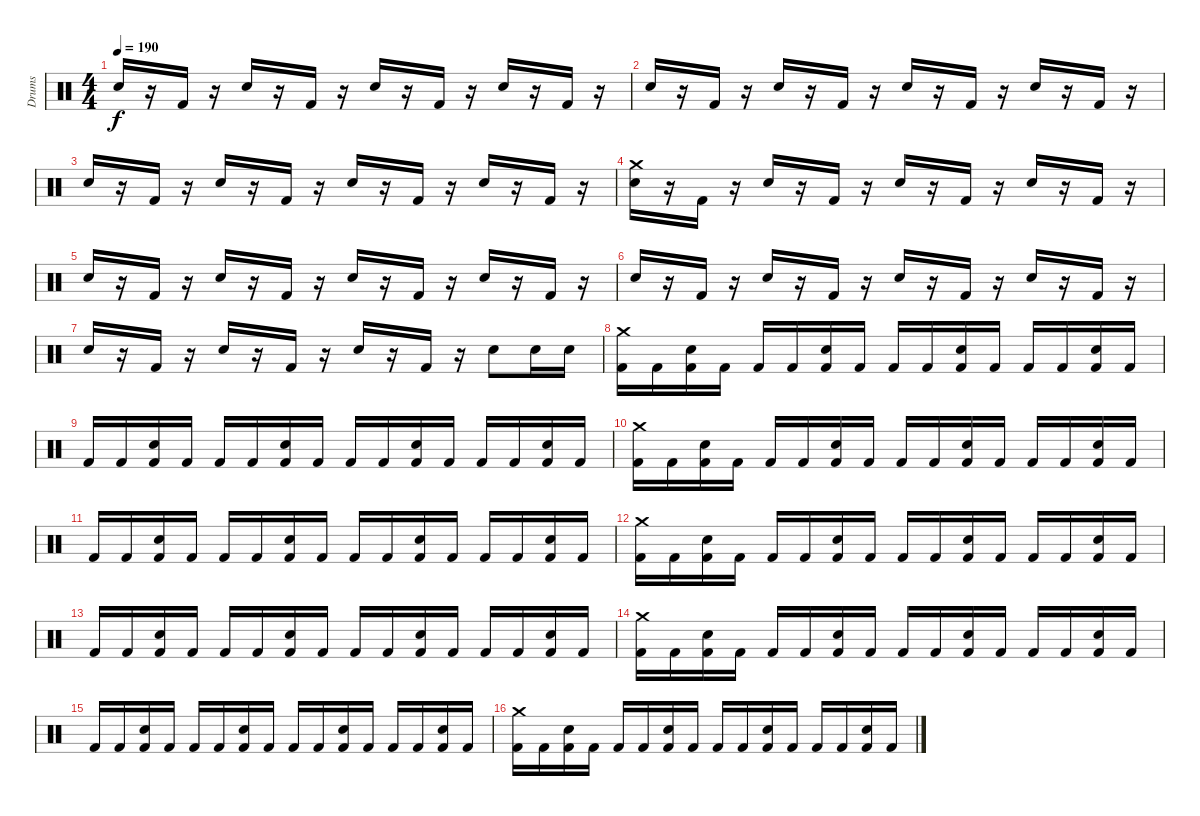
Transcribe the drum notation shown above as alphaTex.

\track ("Drums" "Drums") {instrument percussion}
\staff {score}
\articulation defaults
\ts (4 4)
\tempo 190
\clef neutral
\ks c "Electric Snare (hit)".16{dy f}
r.16 "Kick (hit) 2".16 r.16 "Electric Snare (hit)".16 r.16 "Kick (hit) 2".16 r.16 "Electric Snare (hit)".16 r.16 "Kick (hit) 2".16 r.16 "Electric Snare (hit)".16 r.16 "Kick (hit) 2".16 r.16 |
"Electric Snare (hit)".16 r.16 "Kick (hit) 2".16 r.16 "Electric Snare (hit)".16 r.16 "Kick (hit) 2".16 r.16 "Electric Snare (hit)".16 r.16 "Kick (hit) 2".16 r.16 "Electric Snare (hit)".16 r.16 "Kick (hit) 2".16 r.16 |
"Electric Snare (hit)".16 r.16 "Kick (hit) 2".16 r.16 "Electric Snare (hit)".16 r.16 "Kick (hit) 2".16 r.16 "Electric Snare (hit)".16 r.16 "Kick (hit) 2".16 r.16 "Electric Snare (hit)".16 r.16 "Kick (hit) 2".16 r.16 |
("Crash medium (hit)" "Electric Snare (hit)").16 r.16 "Kick (hit) 2".16 r.16 "Electric Snare (hit)".16 r.16 "Kick (hit) 2".16 r.16 "Electric Snare (hit)".16 r.16 "Kick (hit) 2".16 r.16 "Electric Snare (hit)".16 r.16 "Kick (hit) 2".16 r.16 |
"Electric Snare (hit)".16 r.16 "Kick (hit) 2".16 r.16 "Electric Snare (hit)".16 r.16 "Kick (hit) 2".16 r.16 "Electric Snare (hit)".16 r.16 "Kick (hit) 2".16 r.16 "Electric Snare (hit)".16 r.16 "Kick (hit) 2".16 r.16 |
"Electric Snare (hit)".16 r.16 "Kick (hit) 2".16 r.16 "Electric Snare (hit)".16 r.16 "Kick (hit) 2".16 r.16 "Electric Snare (hit)".16 r.16 "Kick (hit) 2".16 r.16 "Electric Snare (hit)".16 r.16 "Kick (hit) 2".16 r.16 |
"Electric Snare (hit)".16 r.16 "Kick (hit) 2".16 r.16 "Electric Snare (hit)".16 r.16 "Kick (hit) 2".16 r.16 "Electric Snare (hit)".16 r.16 "Kick (hit) 2".16 r.16 "Electric Snare (hit)".8 "Electric Snare (hit)".16 "Electric Snare (hit)".16 |
("Crash medium (hit)" "Kick (hit) 2").16 "Kick (hit) 2".16 ("Electric Snare (hit)" "Kick (hit) 2").16 "Kick (hit) 2".16 "Kick (hit) 2".16 "Kick (hit) 2".16 ("Electric Snare (hit)" "Kick (hit) 2").16 "Kick (hit) 2".16 "Kick (hit) 2".16 "Kick (hit) 2".16 ("Electric Snare (hit)" "Kick (hit) 2").16 "Kick (hit) 2".16 "Kick (hit) 2".16 "Kick (hit) 2".16 ("Electric Snare (hit)" "Kick (hit) 2").16 "Kick (hit) 2".16 |
"Kick (hit) 2".16 "Kick (hit) 2".16 ("Electric Snare (hit)" "Kick (hit) 2").16 "Kick (hit) 2".16 "Kick (hit) 2".16 "Kick (hit) 2".16 ("Electric Snare (hit)" "Kick (hit) 2").16 "Kick (hit) 2".16 "Kick (hit) 2".16 "Kick (hit) 2".16 ("Electric Snare (hit)" "Kick (hit) 2").16 "Kick (hit) 2".16 "Kick (hit) 2".16 "Kick (hit) 2".16 ("Electric Snare (hit)" "Kick (hit) 2").16 "Kick (hit) 2".16 |
("Crash medium (hit)" "Kick (hit) 2").16 "Kick (hit) 2".16 ("Electric Snare (hit)" "Kick (hit) 2").16 "Kick (hit) 2".16 "Kick (hit) 2".16 "Kick (hit) 2".16 ("Electric Snare (hit)" "Kick (hit) 2").16 "Kick (hit) 2".16 "Kick (hit) 2".16 "Kick (hit) 2".16 ("Electric Snare (hit)" "Kick (hit) 2").16 "Kick (hit) 2".16 "Kick (hit) 2".16 "Kick (hit) 2".16 ("Electric Snare (hit)" "Kick (hit) 2").16 "Kick (hit) 2".16 |
"Kick (hit) 2".16 "Kick (hit) 2".16 ("Electric Snare (hit)" "Kick (hit) 2").16 "Kick (hit) 2".16 "Kick (hit) 2".16 "Kick (hit) 2".16 ("Electric Snare (hit)" "Kick (hit) 2").16 "Kick (hit) 2".16 "Kick (hit) 2".16 "Kick (hit) 2".16 ("Electric Snare (hit)" "Kick (hit) 2").16 "Kick (hit) 2".16 "Kick (hit) 2".16 "Kick (hit) 2".16 ("Electric Snare (hit)" "Kick (hit) 2").16 "Kick (hit) 2".16 |
("Crash medium (hit)" "Kick (hit) 2").16 "Kick (hit) 2".16 ("Electric Snare (hit)" "Kick (hit) 2").16 "Kick (hit) 2".16 "Kick (hit) 2".16 "Kick (hit) 2".16 ("Electric Snare (hit)" "Kick (hit) 2").16 "Kick (hit) 2".16 "Kick (hit) 2".16 "Kick (hit) 2".16 ("Electric Snare (hit)" "Kick (hit) 2").16 "Kick (hit) 2".16 "Kick (hit) 2".16 "Kick (hit) 2".16 ("Electric Snare (hit)" "Kick (hit) 2").16 "Kick (hit) 2".16 |
"Kick (hit) 2".16 "Kick (hit) 2".16 ("Electric Snare (hit)" "Kick (hit) 2").16 "Kick (hit) 2".16 "Kick (hit) 2".16 "Kick (hit) 2".16 ("Electric Snare (hit)" "Kick (hit) 2").16 "Kick (hit) 2".16 "Kick (hit) 2".16 "Kick (hit) 2".16 ("Electric Snare (hit)" "Kick (hit) 2").16 "Kick (hit) 2".16 "Kick (hit) 2".16 "Kick (hit) 2".16 ("Electric Snare (hit)" "Kick (hit) 2").16 "Kick (hit) 2".16 |
("Crash medium (hit)" "Kick (hit) 2").16 "Kick (hit) 2".16 ("Electric Snare (hit)" "Kick (hit) 2").16 "Kick (hit) 2".16 "Kick (hit) 2".16 "Kick (hit) 2".16 ("Electric Snare (hit)" "Kick (hit) 2").16 "Kick (hit) 2".16 "Kick (hit) 2".16 "Kick (hit) 2".16 ("Electric Snare (hit)" "Kick (hit) 2").16 "Kick (hit) 2".16 "Kick (hit) 2".16 "Kick (hit) 2".16 ("Electric Snare (hit)" "Kick (hit) 2").16 "Kick (hit) 2".16 |
"Kick (hit) 2".16 "Kick (hit) 2".16 ("Electric Snare (hit)" "Kick (hit) 2").16 "Kick (hit) 2".16 "Kick (hit) 2".16 "Kick (hit) 2".16 ("Electric Snare (hit)" "Kick (hit) 2").16 "Kick (hit) 2".16 "Kick (hit) 2".16 "Kick (hit) 2".16 ("Electric Snare (hit)" "Kick (hit) 2").16 "Kick (hit) 2".16 "Kick (hit) 2".16 "Kick (hit) 2".16 ("Electric Snare (hit)" "Kick (hit) 2").16 "Kick (hit) 2".16 |
("Crash medium (hit)" "Kick (hit) 2").16 "Kick (hit) 2".16 ("Electric Snare (hit)" "Kick (hit) 2").16 "Kick (hit) 2".16 "Kick (hit) 2".16 "Kick (hit) 2".16 ("Electric Snare (hit)" "Kick (hit) 2").16 "Kick (hit) 2".16 "Kick (hit) 2".16 "Kick (hit) 2".16 ("Electric Snare (hit)" "Kick (hit) 2").16 "Kick (hit) 2".16 "Kick (hit) 2".16 "Kick (hit) 2".16 ("Electric Snare (hit)" "Kick (hit) 2").16 "Kick (hit) 2".16
